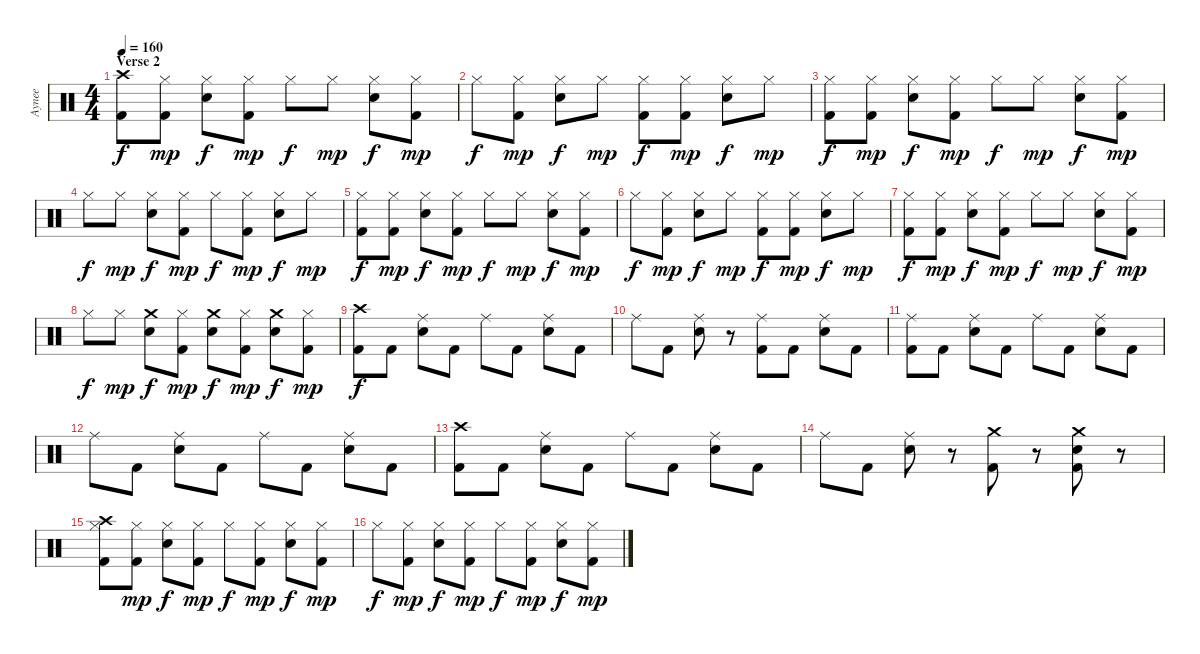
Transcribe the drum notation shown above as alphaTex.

\track ("Aynee " "Aynee ") {instrument percussion}
\staff {score}
\articulation defaults
\ts (4 4)
\section ("" "Verse 2")
\tempo 160
\clef neutral
\ks c
("Crash high (hit)" "Kick (hit) 2").8{dy f} ("Hi-Hat (closed)" "Kick (hit) 2").8{dy mp} ("Hi-Hat (closed)" "Electric Snare (hit)").8{dy f} ("Hi-Hat (closed)" "Kick (hit) 2").8{dy mp} "Hi-Hat (closed)".8{dy f} "Hi-Hat (closed)".8{dy mp} ("Hi-Hat (closed)" "Electric Snare (hit)").8{dy f} ("Hi-Hat (closed)" "Kick (hit) 2").8{dy mp} |
"Hi-Hat (closed)".8{dy f} ("Hi-Hat (closed)" "Kick (hit) 2").8{dy mp} ("Hi-Hat (closed)" "Electric Snare (hit)").8{dy f} "Hi-Hat (closed)".8{dy mp} ("Hi-Hat (closed)" "Kick (hit) 2").8{dy f} ("Hi-Hat (closed)" "Kick (hit) 2").8{dy mp} ("Hi-Hat (closed)" "Electric Snare (hit)").8{dy f} "Hi-Hat (closed)".8{dy mp} |
("Hi-Hat (closed)" "Kick (hit) 2").8{dy f} ("Hi-Hat (closed)" "Kick (hit) 2").8{dy mp} ("Hi-Hat (closed)" "Electric Snare (hit)").8{dy f} ("Hi-Hat (closed)" "Kick (hit) 2").8{dy mp} "Hi-Hat (closed)".8{dy f} "Hi-Hat (closed)".8{dy mp} ("Hi-Hat (closed)" "Electric Snare (hit)").8{dy f} ("Hi-Hat (closed)" "Kick (hit) 2").8{dy mp} |
"Hi-Hat (closed)".8{dy f} "Hi-Hat (closed)".8{dy mp} ("Hi-Hat (closed)" "Electric Snare (hit)").8{dy f} ("Hi-Hat (closed)" "Kick (hit) 2").8{dy mp} "Hi-Hat (closed)".8{dy f} ("Hi-Hat (closed)" "Kick (hit) 2").8{dy mp} ("Hi-Hat (closed)" "Electric Snare (hit)").8{dy f} "Hi-Hat (closed)".8{dy mp} |
("Hi-Hat (closed)" "Kick (hit) 2").8{dy f} ("Hi-Hat (closed)" "Kick (hit) 2").8{dy mp} ("Hi-Hat (closed)" "Electric Snare (hit)").8{dy f} ("Hi-Hat (closed)" "Kick (hit) 2").8{dy mp} "Hi-Hat (closed)".8{dy f} "Hi-Hat (closed)".8{dy mp} ("Hi-Hat (closed)" "Electric Snare (hit)").8{dy f} ("Hi-Hat (closed)" "Kick (hit) 2").8{dy mp} |
"Hi-Hat (closed)".8{dy f} ("Hi-Hat (closed)" "Kick (hit) 2").8{dy mp} ("Hi-Hat (closed)" "Electric Snare (hit)").8{dy f} "Hi-Hat (closed)".8{dy mp} ("Hi-Hat (closed)" "Kick (hit) 2").8{dy f} ("Hi-Hat (closed)" "Kick (hit) 2").8{dy mp} ("Hi-Hat (closed)" "Electric Snare (hit)").8{dy f} "Hi-Hat (closed)".8{dy mp} |
("Hi-Hat (closed)" "Kick (hit) 2").8{dy f} ("Hi-Hat (closed)" "Kick (hit) 2").8{dy mp} ("Hi-Hat (closed)" "Electric Snare (hit)").8{dy f} ("Hi-Hat (closed)" "Kick (hit) 2").8{dy mp} "Hi-Hat (closed)".8{dy f} "Hi-Hat (closed)".8{dy mp} ("Hi-Hat (closed)" "Electric Snare (hit)").8{dy f} ("Hi-Hat (closed)" "Kick (hit) 2").8{dy mp} |
"Hi-Hat (closed)".8{dy f} "Hi-Hat (closed)".8{dy mp} ("Crash medium (hit)" "Electric Snare (hit)").8{dy f} ("Hi-Hat (closed)" "Kick (hit) 2").8{dy mp} ("Crash medium (hit)" "Electric Snare (hit)").8{dy f} ("Hi-Hat (closed)" "Kick (hit) 2").8{dy mp} ("Crash medium (hit)" "Electric Snare (hit)").8{dy f} ("Hi-Hat (closed)" "Kick (hit) 2").8{dy mp} |
("Crash high (hit)" "Kick (hit) 2").8{dy f} "Kick (hit) 2".8 ("Ride (middle)" "Electric Snare (hit)").8 "Kick (hit) 2".8 "Ride (middle)".8 "Kick (hit) 2".8 ("Ride (middle)" "Electric Snare (hit)").8 "Kick (hit) 2".8 |
"Ride (middle)".8 "Kick (hit) 2".8 ("Ride (middle)" "Electric Snare (hit)").8 r.8 ("Ride (middle)" "Kick (hit) 2").8 "Kick (hit) 2".8 ("Ride (middle)" "Electric Snare (hit)").8 "Kick (hit) 2".8 |
("Ride (middle)" "Kick (hit) 2").8 "Kick (hit) 2".8 ("Ride (middle)" "Electric Snare (hit)").8 "Kick (hit) 2".8 "Ride (middle)".8 "Kick (hit) 2".8 ("Ride (middle)" "Electric Snare (hit)").8 "Kick (hit) 2".8 |
"Ride (middle)".8 "Kick (hit) 2".8 ("Ride (middle)" "Electric Snare (hit)").8 "Kick (hit) 2".8 "Ride (middle)".8 "Kick (hit) 2".8 ("Ride (middle)" "Electric Snare (hit)").8 "Kick (hit) 2".8 |
("Crash high (hit)" "Kick (hit) 2").8 "Kick (hit) 2".8 ("Ride (middle)" "Electric Snare (hit)").8 "Kick (hit) 2".8 "Ride (middle)".8 "Kick (hit) 2".8 ("Ride (middle)" "Electric Snare (hit)").8 "Kick (hit) 2".8 |
"Ride (middle)".8 "Kick (hit) 2".8 ("Ride (middle)" "Electric Snare (hit)").8 r.8 ("Crash medium (hit)" "Kick (hit) 2").8 r.8 ("Crash medium (hit)" "Electric Snare (hit)" "Kick (hit) 2").8 r.8 |
("Crash high (hit)" "Hi-Hat (closed)" "Kick (hit) 2").8 ("Hi-Hat (closed)" "Kick (hit) 2").8{dy mp} ("Hi-Hat (closed)" "Electric Snare (hit)").8{dy f} ("Hi-Hat (closed)" "Kick (hit) 2").8{dy mp} "Hi-Hat (closed)".8{dy f} ("Hi-Hat (closed)" "Kick (hit) 2").8{dy mp} ("Hi-Hat (closed)" "Electric Snare (hit)").8{dy f} ("Hi-Hat (closed)" "Kick (hit) 2").8{dy mp} |
"Hi-Hat (closed)".8{dy f} ("Hi-Hat (closed)" "Kick (hit) 2").8{dy mp} ("Hi-Hat (closed)" "Electric Snare (hit)").8{dy f} ("Hi-Hat (closed)" "Kick (hit) 2").8{dy mp} "Hi-Hat (closed)".8{dy f} ("Hi-Hat (closed)" "Kick (hit) 2").8{dy mp} ("Hi-Hat (closed)" "Electric Snare (hit)").8{dy f} ("Hi-Hat (closed)" "Kick (hit) 2").8{dy mp}
